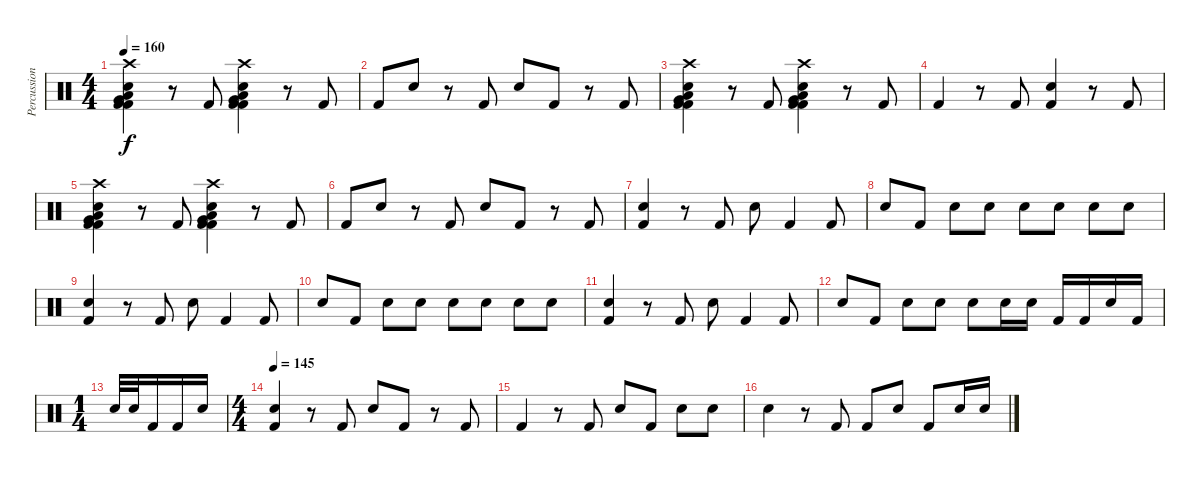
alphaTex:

\track ("Percussion" "Percussion") {instrument percussion}
\staff {score}
\articulation defaults
\ts (4 4)
\tempo 160
\clef neutral
\ks c
("Crash high (hit)" "Kick (hit) 2" "Kick (hit) 2" "Very Low Tom (hit)" "Low Tom (hit)" "Snare (hit) 2").4{dy f} r.8 "Kick (hit) 2".8 ("Crash high (hit)" "Kick (hit) 2" "Kick (hit) 2" "Very Low Tom (hit)" "Low Tom (hit)" "Snare (hit) 2").4 r.8 "Kick (hit) 2".8 |
"Kick (hit) 2".8 "Snare (hit) 2".8 r.8 "Kick (hit) 2".8 "Snare (hit) 2".8 "Kick (hit) 2".8 r.8 "Kick (hit) 2".8 |
("Crash high (hit)" "Kick (hit) 2" "Kick (hit) 2" "Very Low Tom (hit)" "Low Tom (hit)" "Snare (hit) 2").4 r.8 "Kick (hit) 2".8 ("Crash high (hit)" "Kick (hit) 2" "Kick (hit) 2" "Very Low Tom (hit)" "Low Tom (hit)" "Snare (hit) 2").4 r.8 "Kick (hit) 2".8 |
"Kick (hit) 2".4 r.8 "Kick (hit) 2".8 ("Kick (hit) 2" "Snare (hit) 2").4 r.8 "Kick (hit) 2".8 |
("Crash high (hit)" "Kick (hit) 2" "Kick (hit) 2" "Very Low Tom (hit)" "Low Tom (hit)" "Snare (hit) 2").4 r.8 "Kick (hit) 2".8 ("Crash high (hit)" "Kick (hit) 2" "Kick (hit) 2" "Very Low Tom (hit)" "Low Tom (hit)" "Snare (hit) 2").4 r.8 "Kick (hit) 2".8 |
"Kick (hit) 2".8 "Snare (hit) 2".8 r.8 "Kick (hit) 2".8 "Snare (hit) 2".8 "Kick (hit) 2".8 r.8 "Kick (hit) 2".8 |
("Kick (hit) 2" "Snare (hit) 2").4 r.8 "Kick (hit) 2".8 "Snare (hit) 2".8 "Kick (hit) 2".4 "Kick (hit) 2".8 |
"Snare (hit) 2".8 "Kick (hit) 2".8 "Snare (hit) 2".8 "Snare (hit) 2".8 "Snare (hit) 2".8 "Snare (hit) 2".8 "Snare (hit) 2".8 "Snare (hit) 2".8 |
("Kick (hit) 2" "Snare (hit) 2").4 r.8 "Kick (hit) 2".8 "Snare (hit) 2".8 "Kick (hit) 2".4 "Kick (hit) 2".8 |
"Snare (hit) 2".8 "Kick (hit) 2".8 "Snare (hit) 2".8 "Snare (hit) 2".8 "Snare (hit) 2".8 "Snare (hit) 2".8 "Snare (hit) 2".8 "Snare (hit) 2".8 |
("Kick (hit) 2" "Snare (hit) 2").4 r.8 "Kick (hit) 2".8 "Snare (hit) 2".8 "Kick (hit) 2".4 "Kick (hit) 2".8 |
"Snare (hit) 2".8 "Kick (hit) 2".8 "Snare (hit) 2".8 "Snare (hit) 2".8 "Snare (hit) 2".8 "Snare (hit) 2".16 "Snare (hit) 2".16 "Kick (hit) 2".16 "Kick (hit) 2".16 "Snare (hit) 2".16 "Kick (hit) 2".16 |
\ts (1 4)
"Snare (hit) 2".32 "Snare (hit) 2".32 "Kick (hit) 2".16 "Kick (hit) 2".16 "Snare (hit) 2".16 |
\ts (4 4)
\tempo 145
("Kick (hit) 2" "Snare (hit) 2").4 r.8 "Kick (hit) 2".8 "Snare (hit) 2".8 "Kick (hit) 2".8 r.8 "Kick (hit) 2".8 |
"Kick (hit) 2".4 r.8 "Kick (hit) 2".8 "Snare (hit) 2".8 "Kick (hit) 2".8 "Snare (hit) 2".8 "Snare (hit) 2".8 |
"Snare (hit) 2".4 r.8 "Kick (hit) 2".8 "Kick (hit) 2".8 "Snare (hit) 2".8 "Kick (hit) 2".8 "Snare (hit) 2".16 "Snare (hit) 2".16
